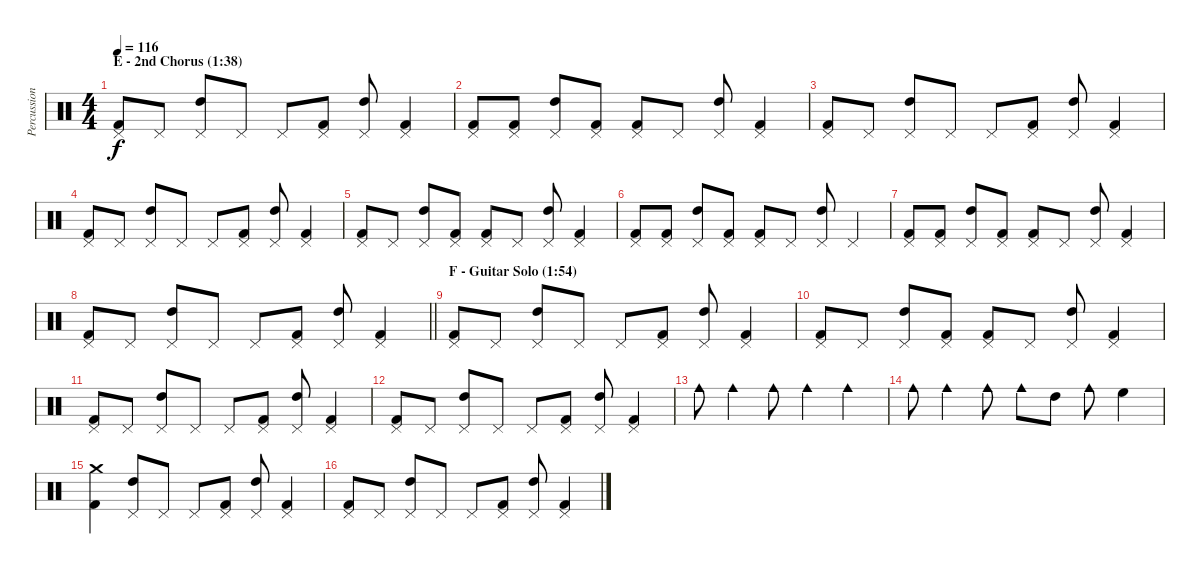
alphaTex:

\track ("Percussion" "Percussion") {instrument percussion}
\staff {score}
\articulation defaults
\ts (4 4)
\section ("" "E - 2nd Chorus (1:38)")
\tempo 116
\clef neutral
\ks c
("Kick (hit) 2" "Pedal Hi-Hat (hit)").8{dy f} "Pedal Hi-Hat (hit)".8 ("High Tom (hit)" "Pedal Hi-Hat (hit)").8 "Pedal Hi-Hat (hit)".8 "Pedal Hi-Hat (hit)".8 ("Kick (hit) 2" "Pedal Hi-Hat (hit)").8 ("High Tom (hit)" "Pedal Hi-Hat (hit)").8 ("Kick (hit) 2" "Pedal Hi-Hat (hit)").4 |
("Kick (hit) 2" "Pedal Hi-Hat (hit)").8 ("Pedal Hi-Hat (hit)" "Kick (hit) 2").8 ("High Tom (hit)" "Pedal Hi-Hat (hit)").8 ("Pedal Hi-Hat (hit)" "Kick (hit) 2").8 ("Pedal Hi-Hat (hit)" "Kick (hit) 2").8 "Pedal Hi-Hat (hit)".8 ("High Tom (hit)" "Pedal Hi-Hat (hit)").8 ("Kick (hit) 2" "Pedal Hi-Hat (hit)").4 |
("Kick (hit) 2" "Pedal Hi-Hat (hit)").8 "Pedal Hi-Hat (hit)".8 ("High Tom (hit)" "Pedal Hi-Hat (hit)").8 "Pedal Hi-Hat (hit)".8 "Pedal Hi-Hat (hit)".8 ("Kick (hit) 2" "Pedal Hi-Hat (hit)").8 ("High Tom (hit)" "Pedal Hi-Hat (hit)").8 ("Kick (hit) 2" "Pedal Hi-Hat (hit)").4 |
("Kick (hit) 2" "Pedal Hi-Hat (hit)").8 "Pedal Hi-Hat (hit)".8 ("High Tom (hit)" "Pedal Hi-Hat (hit)").8 "Pedal Hi-Hat (hit)".8 "Pedal Hi-Hat (hit)".8 ("Kick (hit) 2" "Pedal Hi-Hat (hit)").8 ("High Tom (hit)" "Pedal Hi-Hat (hit)").8 ("Kick (hit) 2" "Pedal Hi-Hat (hit)").4 |
("Kick (hit) 2" "Pedal Hi-Hat (hit)").8 "Pedal Hi-Hat (hit)".8 ("High Tom (hit)" "Pedal Hi-Hat (hit)").8 ("Pedal Hi-Hat (hit)" "Kick (hit) 2").8 ("Pedal Hi-Hat (hit)" "Kick (hit) 2").8 "Pedal Hi-Hat (hit)".8 ("High Tom (hit)" "Pedal Hi-Hat (hit)").8 ("Kick (hit) 2" "Pedal Hi-Hat (hit)").4 |
("Kick (hit) 2" "Pedal Hi-Hat (hit)").8 ("Pedal Hi-Hat (hit)" "Kick (hit) 2").8 ("High Tom (hit)" "Pedal Hi-Hat (hit)").8 ("Pedal Hi-Hat (hit)" "Kick (hit) 2").8 ("Pedal Hi-Hat (hit)" "Kick (hit) 2").8 "Pedal Hi-Hat (hit)".8 ("High Tom (hit)" "Pedal Hi-Hat (hit)").8 "Pedal Hi-Hat (hit)".4 |
("Kick (hit) 2" "Pedal Hi-Hat (hit)").8 ("Pedal Hi-Hat (hit)" "Kick (hit) 2").8 ("High Tom (hit)" "Pedal Hi-Hat (hit)").8 ("Pedal Hi-Hat (hit)" "Kick (hit) 2").8 ("Pedal Hi-Hat (hit)" "Kick (hit) 2").8 "Pedal Hi-Hat (hit)".8 ("High Tom (hit)" "Pedal Hi-Hat (hit)").8 ("Kick (hit) 2" "Pedal Hi-Hat (hit)").4 |
\barLineRight lightlight
("Kick (hit) 2" "Pedal Hi-Hat (hit)").8 "Pedal Hi-Hat (hit)".8 ("High Tom (hit)" "Pedal Hi-Hat (hit)").8 "Pedal Hi-Hat (hit)".8 "Pedal Hi-Hat (hit)".8 ("Kick (hit) 2" "Pedal Hi-Hat (hit)").8 ("High Tom (hit)" "Pedal Hi-Hat (hit)").8 ("Kick (hit) 2" "Pedal Hi-Hat (hit)").4 |
\section ("" "F - Guitar Solo (1:54)")
("Kick (hit) 2" "Pedal Hi-Hat (hit)").8 "Pedal Hi-Hat (hit)".8 ("High Tom (hit)" "Pedal Hi-Hat (hit)").8 "Pedal Hi-Hat (hit)".8 "Pedal Hi-Hat (hit)".8 ("Kick (hit) 2" "Pedal Hi-Hat (hit)").8 ("High Tom (hit)" "Pedal Hi-Hat (hit)").8 ("Kick (hit) 2" "Pedal Hi-Hat (hit)").4 |
("Kick (hit) 2" "Pedal Hi-Hat (hit)").8 "Pedal Hi-Hat (hit)".8 ("High Tom (hit)" "Pedal Hi-Hat (hit)").8 ("Pedal Hi-Hat (hit)" "Kick (hit) 2").8 ("Pedal Hi-Hat (hit)" "Kick (hit) 2").8 "Pedal Hi-Hat (hit)".8 ("High Tom (hit)" "Pedal Hi-Hat (hit)").8 ("Kick (hit) 2" "Pedal Hi-Hat (hit)").4 |
("Kick (hit) 2" "Pedal Hi-Hat (hit)").8 "Pedal Hi-Hat (hit)".8 ("High Tom (hit)" "Pedal Hi-Hat (hit)").8 "Pedal Hi-Hat (hit)".8 "Pedal Hi-Hat (hit)".8 ("Kick (hit) 2" "Pedal Hi-Hat (hit)").8 ("High Tom (hit)" "Pedal Hi-Hat (hit)").8 ("Kick (hit) 2" "Pedal Hi-Hat (hit)").4 |
("Kick (hit) 2" "Pedal Hi-Hat (hit)").8 "Pedal Hi-Hat (hit)".8 ("High Tom (hit)" "Pedal Hi-Hat (hit)").8 "Pedal Hi-Hat (hit)".8 "Pedal Hi-Hat (hit)".8 ("Kick (hit) 2" "Pedal Hi-Hat (hit)").8 ("High Tom (hit)" "Pedal Hi-Hat (hit)").8 ("Kick (hit) 2" "Pedal Hi-Hat (hit)").4 |
"Cowbell medium (hit)".8 "Cowbell medium (hit)".4 "Cowbell medium (hit)".8 "Cowbell medium (hit)".4 "Cowbell medium (hit)".4 |
"Cowbell medium (hit)".8 "Cowbell medium (hit)".4 "Cowbell medium (hit)".8 "Cowbell medium (hit)".8 "High Tom (hit)".8 "Cowbell medium (hit)".8 "High Floor Tom (hit)".4 |
("Kick (hit) 2" "Crash medium (hit)").4 ("High Tom (hit)" "Pedal Hi-Hat (hit)").8 "Pedal Hi-Hat (hit)".8 "Pedal Hi-Hat (hit)".8 ("Kick (hit) 2" "Pedal Hi-Hat (hit)").8 ("High Tom (hit)" "Pedal Hi-Hat (hit)").8 ("Kick (hit) 2" "Pedal Hi-Hat (hit)").4 |
("Kick (hit) 2" "Pedal Hi-Hat (hit)").8 "Pedal Hi-Hat (hit)".8 ("High Tom (hit)" "Pedal Hi-Hat (hit)").8 "Pedal Hi-Hat (hit)".8 "Pedal Hi-Hat (hit)".8 ("Kick (hit) 2" "Pedal Hi-Hat (hit)").8 ("High Tom (hit)" "Pedal Hi-Hat (hit)").8 ("Kick (hit) 2" "Pedal Hi-Hat (hit)").4
